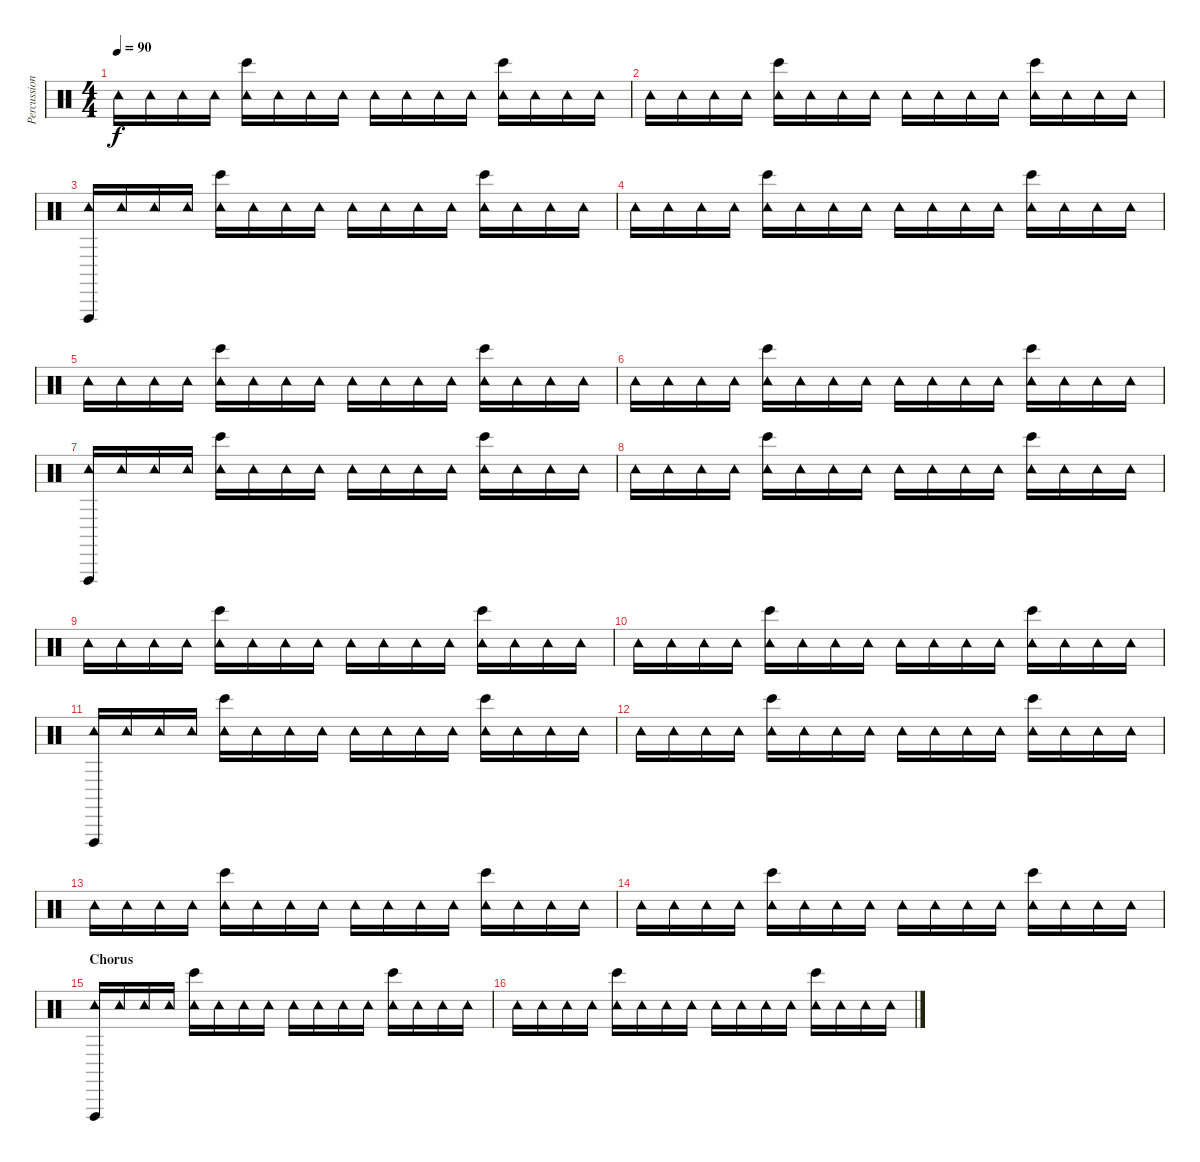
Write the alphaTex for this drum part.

\track ("Percussion" "Percussion") {instrument percussion}
\staff {score}
\articulation defaults
\ts (4 4)
\tempo 90
\clef neutral
\ks c "Tambourine (hit)".16{dy f} "Tambourine (hit)".16 "Tambourine (hit)".16 "Tambourine (hit)".16
("Tambourine (hit)" "Bongo High (hit)").16 "Tambourine (hit)".16 "Tambourine (hit)".16 "Tambourine (hit)".16 "Tambourine (hit)".16 "Tambourine (hit)".16 "Tambourine (hit)".16 "Tambourine (hit)".16 ("Tambourine (hit)" "Bongo High (hit)").16 "Tambourine (hit)".16 "Tambourine (hit)".16 "Tambourine (hit)".16 |
"Tambourine (hit)".16 "Tambourine (hit)".16 "Tambourine (hit)".16 "Tambourine (hit)".16 ("Tambourine (hit)" "Bongo High (hit)").16 "Tambourine (hit)".16 "Tambourine (hit)".16 "Tambourine (hit)".16 "Tambourine (hit)".16 "Tambourine (hit)".16 "Tambourine (hit)".16 "Tambourine (hit)".16 ("Tambourine (hit)" "Bongo High (hit)").16 "Tambourine (hit)".16 "Tambourine (hit)".16 "Tambourine (hit)".16 |
("Tambourine (hit)" "Vibraslap (hit)").16 "Tambourine (hit)".16 "Tambourine (hit)".16 "Tambourine (hit)".16 ("Tambourine (hit)" "Bongo High (hit)").16 "Tambourine (hit)".16 "Tambourine (hit)".16 "Tambourine (hit)".16 "Tambourine (hit)".16 "Tambourine (hit)".16 "Tambourine (hit)".16 "Tambourine (hit)".16 ("Tambourine (hit)" "Bongo High (hit)").16 "Tambourine (hit)".16 "Tambourine (hit)".16 "Tambourine (hit)".16 |
"Tambourine (hit)".16 "Tambourine (hit)".16 "Tambourine (hit)".16 "Tambourine (hit)".16 ("Tambourine (hit)" "Bongo High (hit)").16 "Tambourine (hit)".16 "Tambourine (hit)".16 "Tambourine (hit)".16 "Tambourine (hit)".16 "Tambourine (hit)".16 "Tambourine (hit)".16 "Tambourine (hit)".16 ("Tambourine (hit)" "Bongo High (hit)").16 "Tambourine (hit)".16 "Tambourine (hit)".16 "Tambourine (hit)".16 |
"Tambourine (hit)".16 "Tambourine (hit)".16 "Tambourine (hit)".16 "Tambourine (hit)".16 ("Tambourine (hit)" "Bongo High (hit)").16 "Tambourine (hit)".16 "Tambourine (hit)".16 "Tambourine (hit)".16 "Tambourine (hit)".16 "Tambourine (hit)".16 "Tambourine (hit)".16 "Tambourine (hit)".16 ("Tambourine (hit)" "Bongo High (hit)").16 "Tambourine (hit)".16 "Tambourine (hit)".16 "Tambourine (hit)".16 |
"Tambourine (hit)".16 "Tambourine (hit)".16 "Tambourine (hit)".16 "Tambourine (hit)".16 ("Tambourine (hit)" "Bongo High (hit)").16 "Tambourine (hit)".16 "Tambourine (hit)".16 "Tambourine (hit)".16 "Tambourine (hit)".16 "Tambourine (hit)".16 "Tambourine (hit)".16 "Tambourine (hit)".16 ("Tambourine (hit)" "Bongo High (hit)").16 "Tambourine (hit)".16 "Tambourine (hit)".16 "Tambourine (hit)".16 |
("Tambourine (hit)" "Vibraslap (hit)").16 "Tambourine (hit)".16 "Tambourine (hit)".16 "Tambourine (hit)".16 ("Tambourine (hit)" "Bongo High (hit)").16 "Tambourine (hit)".16 "Tambourine (hit)".16 "Tambourine (hit)".16 "Tambourine (hit)".16 "Tambourine (hit)".16 "Tambourine (hit)".16 "Tambourine (hit)".16 ("Tambourine (hit)" "Bongo High (hit)").16 "Tambourine (hit)".16 "Tambourine (hit)".16 "Tambourine (hit)".16 |
"Tambourine (hit)".16 "Tambourine (hit)".16 "Tambourine (hit)".16 "Tambourine (hit)".16 ("Tambourine (hit)" "Bongo High (hit)").16 "Tambourine (hit)".16 "Tambourine (hit)".16 "Tambourine (hit)".16 "Tambourine (hit)".16 "Tambourine (hit)".16 "Tambourine (hit)".16 "Tambourine (hit)".16 ("Tambourine (hit)" "Bongo High (hit)").16 "Tambourine (hit)".16 "Tambourine (hit)".16 "Tambourine (hit)".16 |
"Tambourine (hit)".16 "Tambourine (hit)".16 "Tambourine (hit)".16 "Tambourine (hit)".16 ("Tambourine (hit)" "Bongo High (hit)").16 "Tambourine (hit)".16 "Tambourine (hit)".16 "Tambourine (hit)".16 "Tambourine (hit)".16 "Tambourine (hit)".16 "Tambourine (hit)".16 "Tambourine (hit)".16 ("Tambourine (hit)" "Bongo High (hit)").16 "Tambourine (hit)".16 "Tambourine (hit)".16 "Tambourine (hit)".16 |
"Tambourine (hit)".16 "Tambourine (hit)".16 "Tambourine (hit)".16 "Tambourine (hit)".16 ("Tambourine (hit)" "Bongo High (hit)").16 "Tambourine (hit)".16 "Tambourine (hit)".16 "Tambourine (hit)".16 "Tambourine (hit)".16 "Tambourine (hit)".16 "Tambourine (hit)".16 "Tambourine (hit)".16 ("Tambourine (hit)" "Bongo High (hit)").16 "Tambourine (hit)".16 "Tambourine (hit)".16 "Tambourine (hit)".16 |
("Tambourine (hit)" "Vibraslap (hit)").16 "Tambourine (hit)".16 "Tambourine (hit)".16 "Tambourine (hit)".16 ("Tambourine (hit)" "Bongo High (hit)").16 "Tambourine (hit)".16 "Tambourine (hit)".16 "Tambourine (hit)".16 "Tambourine (hit)".16 "Tambourine (hit)".16 "Tambourine (hit)".16 "Tambourine (hit)".16 ("Tambourine (hit)" "Bongo High (hit)").16 "Tambourine (hit)".16 "Tambourine (hit)".16 "Tambourine (hit)".16 |
"Tambourine (hit)".16 "Tambourine (hit)".16 "Tambourine (hit)".16 "Tambourine (hit)".16 ("Tambourine (hit)" "Bongo High (hit)").16 "Tambourine (hit)".16 "Tambourine (hit)".16 "Tambourine (hit)".16 "Tambourine (hit)".16 "Tambourine (hit)".16 "Tambourine (hit)".16 "Tambourine (hit)".16 ("Tambourine (hit)" "Bongo High (hit)").16 "Tambourine (hit)".16 "Tambourine (hit)".16 "Tambourine (hit)".16 |
"Tambourine (hit)".16 "Tambourine (hit)".16 "Tambourine (hit)".16 "Tambourine (hit)".16 ("Tambourine (hit)" "Bongo High (hit)").16 "Tambourine (hit)".16 "Tambourine (hit)".16 "Tambourine (hit)".16 "Tambourine (hit)".16 "Tambourine (hit)".16 "Tambourine (hit)".16 "Tambourine (hit)".16 ("Tambourine (hit)" "Bongo High (hit)").16 "Tambourine (hit)".16 "Tambourine (hit)".16 "Tambourine (hit)".16 |
"Tambourine (hit)".16 "Tambourine (hit)".16 "Tambourine (hit)".16 "Tambourine (hit)".16 ("Tambourine (hit)" "Bongo High (hit)").16 "Tambourine (hit)".16 "Tambourine (hit)".16 "Tambourine (hit)".16 "Tambourine (hit)".16 "Tambourine (hit)".16 "Tambourine (hit)".16 "Tambourine (hit)".16 ("Tambourine (hit)" "Bongo High (hit)").16 "Tambourine (hit)".16 "Tambourine (hit)".16 "Tambourine (hit)".16 |
\section ("" "Chorus")
("Tambourine (hit)" "Vibraslap (hit)").16 "Tambourine (hit)".16 "Tambourine (hit)".16 "Tambourine (hit)".16 ("Tambourine (hit)" "Bongo High (hit)").16 "Tambourine (hit)".16 "Tambourine (hit)".16 "Tambourine (hit)".16 "Tambourine (hit)".16 "Tambourine (hit)".16 "Tambourine (hit)".16 "Tambourine (hit)".16 ("Tambourine (hit)" "Bongo High (hit)").16 "Tambourine (hit)".16 "Tambourine (hit)".16 "Tambourine (hit)".16 |
"Tambourine (hit)".16 "Tambourine (hit)".16 "Tambourine (hit)".16 "Tambourine (hit)".16 ("Tambourine (hit)" "Bongo High (hit)").16 "Tambourine (hit)".16 "Tambourine (hit)".16 "Tambourine (hit)".16 "Tambourine (hit)".16 "Tambourine (hit)".16 "Tambourine (hit)".16 "Tambourine (hit)".16 ("Tambourine (hit)" "Bongo High (hit)").16 "Tambourine (hit)".16 "Tambourine (hit)".16 "Tambourine (hit)".16
